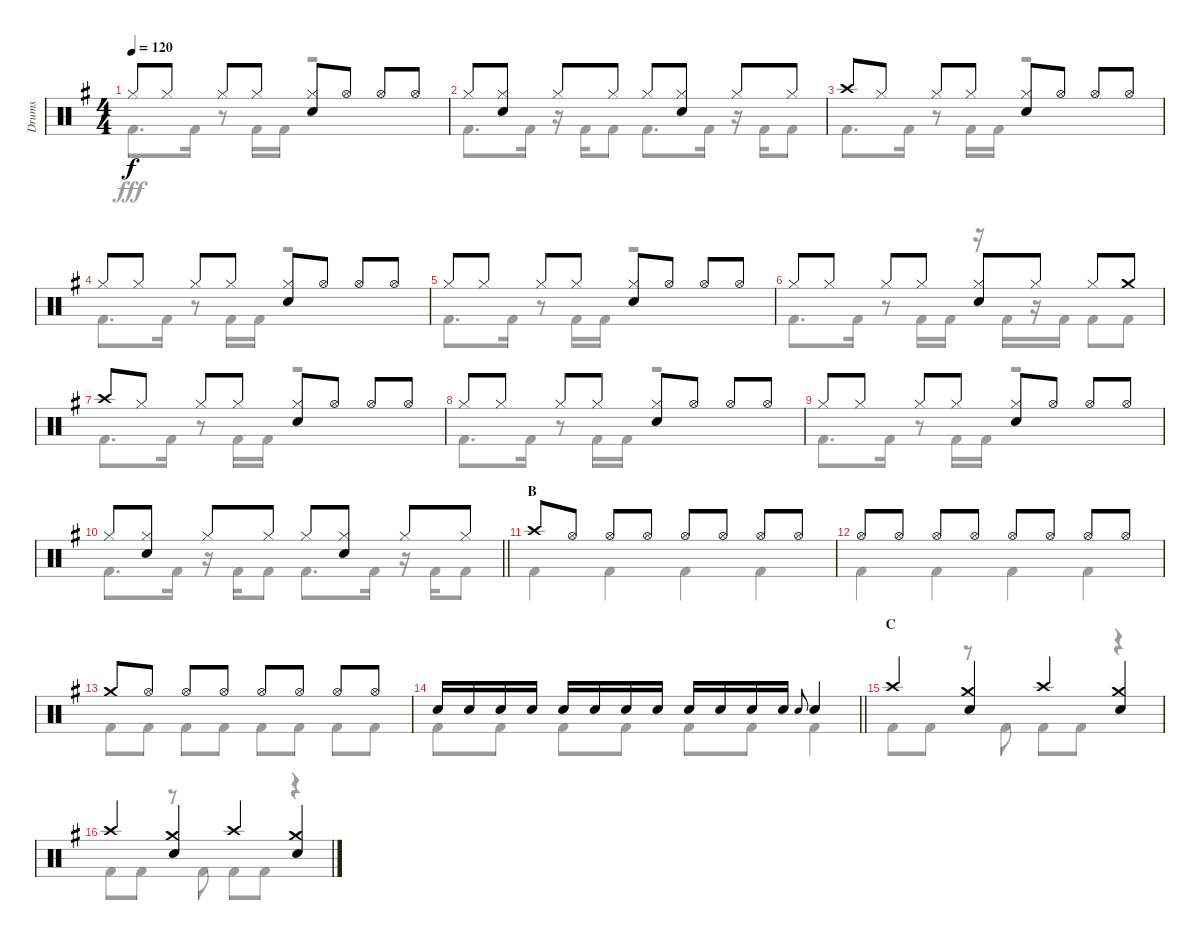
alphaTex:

\track ("Drums" "Drums") {instrument percussion}
\staff {score}
\articulation defaults
\voice
\ts (4 4)
\tempo 120
\clef neutral
\ks g "Hi-Hat (closed)".8{dy f} "Hi-Hat (closed)".8 "Hi-Hat (closed)".8 "Hi-Hat (closed)".8
("Hi-Hat (closed)" "Snare (hit) 2").8 "Hi-Hat (open)".8 "Hi-Hat (open)".8 "Hi-Hat (open)".8 |
"Hi-Hat (closed)".8 ("Hi-Hat (closed)" "Snare (hit) 2").8 "Hi-Hat (closed)".8 "Hi-Hat (closed)".8 "Hi-Hat (closed)".8 ("Hi-Hat (closed)" "Snare (hit) 2").8 "Hi-Hat (closed)".8 "Hi-Hat (closed)".8 |
"Crash high (hit)".8 "Hi-Hat (closed)".8 "Hi-Hat (closed)".8 "Hi-Hat (closed)".8 ("Hi-Hat (closed)" "Snare (hit) 2").8 "Hi-Hat (open)".8 "Hi-Hat (open)".8 "Hi-Hat (open)".8 |
"Hi-Hat (closed)".8 "Hi-Hat (closed)".8 "Hi-Hat (closed)".8 "Hi-Hat (closed)".8 ("Hi-Hat (closed)" "Snare (hit) 2").8 "Hi-Hat (open)".8 "Hi-Hat (open)".8 "Hi-Hat (open)".8 |
"Hi-Hat (closed)".8 "Hi-Hat (closed)".8 "Hi-Hat (closed)".8 "Hi-Hat (closed)".8 ("Hi-Hat (closed)" "Snare (hit) 2").8 "Hi-Hat (open)".8 "Hi-Hat (open)".8 "Hi-Hat (open)".8 |
"Hi-Hat (closed)".8 "Hi-Hat (closed)".8 "Hi-Hat (closed)".8 "Hi-Hat (closed)".8 ("Hi-Hat (closed)" "Snare (hit) 2").8 "Hi-Hat (closed)".8 "Hi-Hat (closed)".8 "Crash medium (hit)".8 |
"Crash high (hit)".8 "Hi-Hat (closed)".8 "Hi-Hat (closed)".8 "Hi-Hat (closed)".8 ("Hi-Hat (closed)" "Snare (hit) 2").8 "Hi-Hat (open)".8 "Hi-Hat (open)".8 "Hi-Hat (open)".8 |
"Hi-Hat (closed)".8 "Hi-Hat (closed)".8 "Hi-Hat (closed)".8 "Hi-Hat (closed)".8 ("Hi-Hat (closed)" "Snare (hit) 2").8 "Hi-Hat (open)".8 "Hi-Hat (open)".8 "Hi-Hat (open)".8 |
"Hi-Hat (closed)".8 "Hi-Hat (closed)".8 "Hi-Hat (closed)".8 "Hi-Hat (closed)".8 ("Hi-Hat (closed)" "Snare (hit) 2").8 "Hi-Hat (open)".8 "Hi-Hat (open)".8 "Hi-Hat (open)".8 |
\barLineRight lightlight "Hi-Hat (closed)".8
("Hi-Hat (closed)" "Snare (hit) 2").8 "Hi-Hat (closed)".8 "Hi-Hat (closed)".8 "Hi-Hat (closed)".8 ("Hi-Hat (closed)" "Snare (hit) 2").8 "Hi-Hat (closed)".8 "Hi-Hat (closed)".8 |
\section ("" "B")
\ks eminor "Crash high (hit)".8 "Hi-Hat (open)".8 "Hi-Hat (open)".8 "Hi-Hat (open)".8 "Hi-Hat (open)".8 "Hi-Hat (open)".8 "Hi-Hat (open)".8 "Hi-Hat (open)".8
|
"Hi-Hat (open)".8 "Hi-Hat (open)".8 "Hi-Hat (open)".8 "Hi-Hat (open)".8 "Hi-Hat (open)".8 "Hi-Hat (open)".8 "Hi-Hat (open)".8 "Hi-Hat (open)".8 |
"Crash medium (hit)".8 "Hi-Hat (open)".8 "Hi-Hat (open)".8 "Hi-Hat (open)".8 "Hi-Hat (open)".8 "Hi-Hat (open)".8 "Hi-Hat (open)".8 "Hi-Hat (open)".8 |
\barLineRight lightlight "Snare (hit) 2".16 "Snare (hit) 2".16 "Snare (hit) 2".16 "Snare (hit) 2".16 "Snare (hit) 2".16 "Snare (hit) 2".16 "Snare (hit) 2".16 "Snare (hit) 2".16 "Snare (hit) 2".16 "Snare (hit) 2".16 "Snare (hit) 2".16 "Snare (hit) 2".16 "Snare (hit) 2".8{gr onbeat} "Snare (hit) 2".4
|
\section ("" "C")
"Crash high (hit)".4 ("Crash medium (hit)" "Snare (hit) 2").4 "Crash high (hit)".4 ("Crash medium (hit)" "Snare (hit) 2").4 |
"Crash high (hit)".4 ("Crash medium (hit)" "Snare (hit) 2").4 "Crash high (hit)".4 ("Crash medium (hit)" "Snare (hit) 2").4
\voice
\clef neutral
\ottava regular
\simile none
\ks g "Kick (hit) 2".8{d dy fff} "Kick (hit) 2".16
r.8 "Kick (hit) 2".16 "Kick (hit) 2".16 r.2 |
"Kick (hit) 2".8{d} "Kick (hit) 2".16 r.16 "Kick (hit) 2".16 "Kick (hit) 2".8 "Kick (hit) 2".8{d} "Kick (hit) 2".16 r.16 "Kick (hit) 2".16 "Kick (hit) 2".8 |
"Kick (hit) 2".8{d} "Kick (hit) 2".16 r.8 "Kick (hit) 2".16 "Kick (hit) 2".16 r.2 |
"Kick (hit) 2".8{d} "Kick (hit) 2".16 r.8 "Kick (hit) 2".16 "Kick (hit) 2".16 r.2 |
"Kick (hit) 2".8{d} "Kick (hit) 2".16 r.8 "Kick (hit) 2".16 "Kick (hit) 2".16 r.2 |
"Kick (hit) 2".8{d} "Kick (hit) 2".16 r.8 "Kick (hit) 2".16 "Kick (hit) 2".16 r.16 "Kick (hit) 2".16 r.16 "Kick (hit) 2".16 "Kick (hit) 2".8 "Kick (hit) 2".8 |
"Kick (hit) 2".8{d} "Kick (hit) 2".16 r.8 "Kick (hit) 2".16 "Kick (hit) 2".16 r.2 |
"Kick (hit) 2".8{d} "Kick (hit) 2".16 r.8 "Kick (hit) 2".16 "Kick (hit) 2".16 r.2 |
"Kick (hit) 2".8{d} "Kick (hit) 2".16 r.8 "Kick (hit) 2".16 "Kick (hit) 2".16 r.2 |
\barLineRight lightlight "Kick (hit) 2".8{d} "Kick (hit) 2".16
r.16 "Kick (hit) 2".16 "Kick (hit) 2".8 "Kick (hit) 2".8{d} "Kick (hit) 2".16 r.16 "Kick (hit) 2".16 "Kick (hit) 2".8 |
\ks eminor "Kick (hit) 2".4 "Kick (hit) 2".4 "Kick (hit) 2".4 "Kick (hit) 2".4
|
"Kick (hit) 2".4 "Kick (hit) 2".4 "Kick (hit) 2".4 "Kick (hit) 2".4 |
"Kick (hit) 2".8 "Kick (hit) 2".8 "Kick (hit) 2".8 "Kick (hit) 2".8 "Kick (hit) 2".8 "Kick (hit) 2".8 "Kick (hit) 2".8 "Kick (hit) 2".8 |
\barLineRight lightlight "Kick (hit) 2".8 "Kick (hit) 2".8 "Kick (hit) 2".8 "Kick (hit) 2".8 "Kick (hit) 2".8 "Kick (hit) 2".8 "Kick (hit) 2".4
|
"Kick (hit) 2".8 "Kick (hit) 2".8 r.8 "Kick (hit) 2".8 "Kick (hit) 2".8 "Kick (hit) 2".8 r.4 |
"Kick (hit) 2".8 "Kick (hit) 2".8 r.8 "Kick (hit) 2".8 "Kick (hit) 2".8 "Kick (hit) 2".8 r.4
